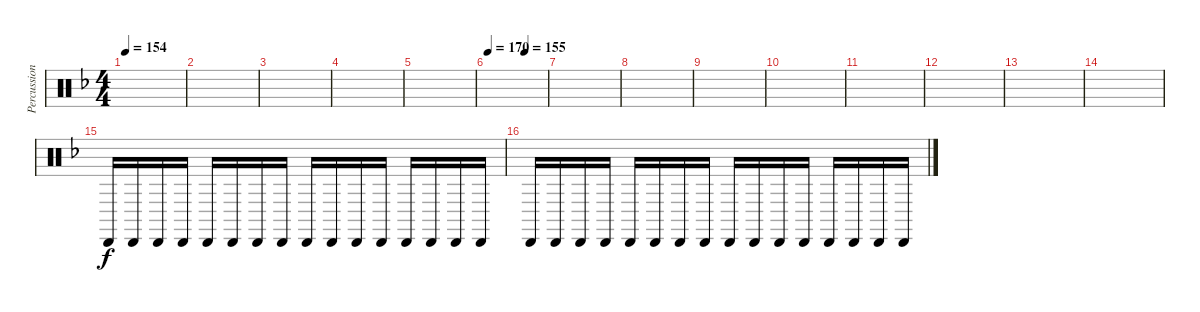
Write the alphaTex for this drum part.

\track ("Percussion" "Percussion") {instrument percussion}
\staff {score}
\articulation defaults
\ts (4 4)
\tempo 154
\clef neutral
\ks dminor
|
|
|
|
|
\tempo 170
\tempo (155 0.625)
|
|
|
|
|
|
|
|
|
"Cabasa (hit)".16 "Cabasa (hit)".16 "Cabasa (hit)".16 "Cabasa (hit)".16 "Cabasa (hit)".16 "Cabasa (hit)".16 "Cabasa (hit)".16 "Cabasa (hit)".16 "Cabasa (hit)".16 "Cabasa (hit)".16 "Cabasa (hit)".16 "Cabasa (hit)".16 "Cabasa (hit)".16 "Cabasa (hit)".16 "Cabasa (hit)".16 "Cabasa (hit)".16 |
"Cabasa (hit)".16 "Cabasa (hit)".16 "Cabasa (hit)".16 "Cabasa (hit)".16 "Cabasa (hit)".16 "Cabasa (hit)".16 "Cabasa (hit)".16 "Cabasa (hit)".16 "Cabasa (hit)".16 "Cabasa (hit)".16 "Cabasa (hit)".16 "Cabasa (hit)".16 "Cabasa (hit)".16 "Cabasa (hit)".16 "Cabasa (hit)".16 "Cabasa (hit)".16
